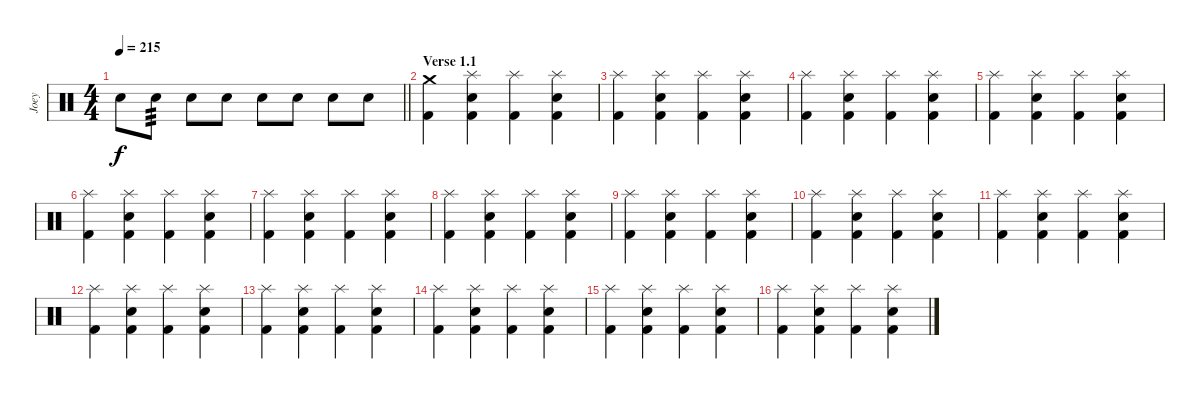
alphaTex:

\track ("Joey" "Joey") {instrument percussion}
\staff {score}
\articulation defaults
\ts (4 4)
\tempo 215
\clef neutral
\barLineRight lightlight
\ks c "Electric Snare (hit)".8{dy f} "Electric Snare (hit)".8{tp 3} "Electric Snare (hit)".8 "Electric Snare (hit)".8 "Electric Snare (hit)".8 "Electric Snare (hit)".8 "Electric Snare (hit)".8 "Electric Snare (hit)".8
|
\section ("" "Verse 1.1")
("Crash medium (hit)" "Kick (hit) 2").4 ("Splash (hit)" "Electric Snare (hit)" "Kick (hit) 2").4 ("Splash (hit)" "Kick (hit) 2").4 ("Splash (hit)" "Electric Snare (hit)" "Kick (hit) 2").4 |
("Splash (hit)" "Kick (hit) 2").4 ("Splash (hit)" "Electric Snare (hit)" "Kick (hit) 2").4 ("Splash (hit)" "Kick (hit) 2").4 ("Splash (hit)" "Electric Snare (hit)" "Kick (hit) 2").4 |
("Splash (hit)" "Kick (hit) 2").4 ("Splash (hit)" "Electric Snare (hit)" "Kick (hit) 2").4 ("Splash (hit)" "Kick (hit) 2").4 ("Splash (hit)" "Electric Snare (hit)" "Kick (hit) 2").4 |
("Splash (hit)" "Kick (hit) 2").4 ("Splash (hit)" "Electric Snare (hit)" "Kick (hit) 2").4 ("Splash (hit)" "Kick (hit) 2").4 ("Splash (hit)" "Electric Snare (hit)" "Kick (hit) 2").4 |
("Splash (hit)" "Kick (hit) 2").4 ("Splash (hit)" "Electric Snare (hit)" "Kick (hit) 2").4 ("Splash (hit)" "Kick (hit) 2").4 ("Splash (hit)" "Electric Snare (hit)" "Kick (hit) 2").4 |
("Splash (hit)" "Kick (hit) 2").4 ("Splash (hit)" "Electric Snare (hit)" "Kick (hit) 2").4 ("Splash (hit)" "Kick (hit) 2").4 ("Splash (hit)" "Electric Snare (hit)" "Kick (hit) 2").4 |
("Splash (hit)" "Kick (hit) 2").4 ("Splash (hit)" "Electric Snare (hit)" "Kick (hit) 2").4 ("Splash (hit)" "Kick (hit) 2").4 ("Splash (hit)" "Electric Snare (hit)" "Kick (hit) 2").4 |
("Splash (hit)" "Kick (hit) 2").4 ("Splash (hit)" "Electric Snare (hit)" "Kick (hit) 2").4 ("Splash (hit)" "Kick (hit) 2").4 ("Splash (hit)" "Electric Snare (hit)" "Kick (hit) 2").4 |
("Splash (hit)" "Kick (hit) 2").4 ("Splash (hit)" "Electric Snare (hit)" "Kick (hit) 2").4 ("Splash (hit)" "Kick (hit) 2").4 ("Splash (hit)" "Electric Snare (hit)" "Kick (hit) 2").4 |
("Splash (hit)" "Kick (hit) 2").4 ("Splash (hit)" "Electric Snare (hit)" "Kick (hit) 2").4 ("Splash (hit)" "Kick (hit) 2").4 ("Splash (hit)" "Electric Snare (hit)" "Kick (hit) 2").4 |
("Splash (hit)" "Kick (hit) 2").4 ("Splash (hit)" "Electric Snare (hit)" "Kick (hit) 2").4 ("Splash (hit)" "Kick (hit) 2").4 ("Splash (hit)" "Electric Snare (hit)" "Kick (hit) 2").4 |
("Splash (hit)" "Kick (hit) 2").4 ("Splash (hit)" "Electric Snare (hit)" "Kick (hit) 2").4 ("Splash (hit)" "Kick (hit) 2").4 ("Splash (hit)" "Electric Snare (hit)" "Kick (hit) 2").4 |
("Splash (hit)" "Kick (hit) 2").4 ("Splash (hit)" "Electric Snare (hit)" "Kick (hit) 2").4 ("Splash (hit)" "Kick (hit) 2").4 ("Splash (hit)" "Electric Snare (hit)" "Kick (hit) 2").4 |
("Splash (hit)" "Kick (hit) 2").4 ("Splash (hit)" "Electric Snare (hit)" "Kick (hit) 2").4 ("Splash (hit)" "Kick (hit) 2").4 ("Splash (hit)" "Electric Snare (hit)" "Kick (hit) 2").4 |
("Splash (hit)" "Kick (hit) 2").4 ("Splash (hit)" "Electric Snare (hit)" "Kick (hit) 2").4 ("Splash (hit)" "Kick (hit) 2").4 ("Splash (hit)" "Electric Snare (hit)" "Kick (hit) 2").4
